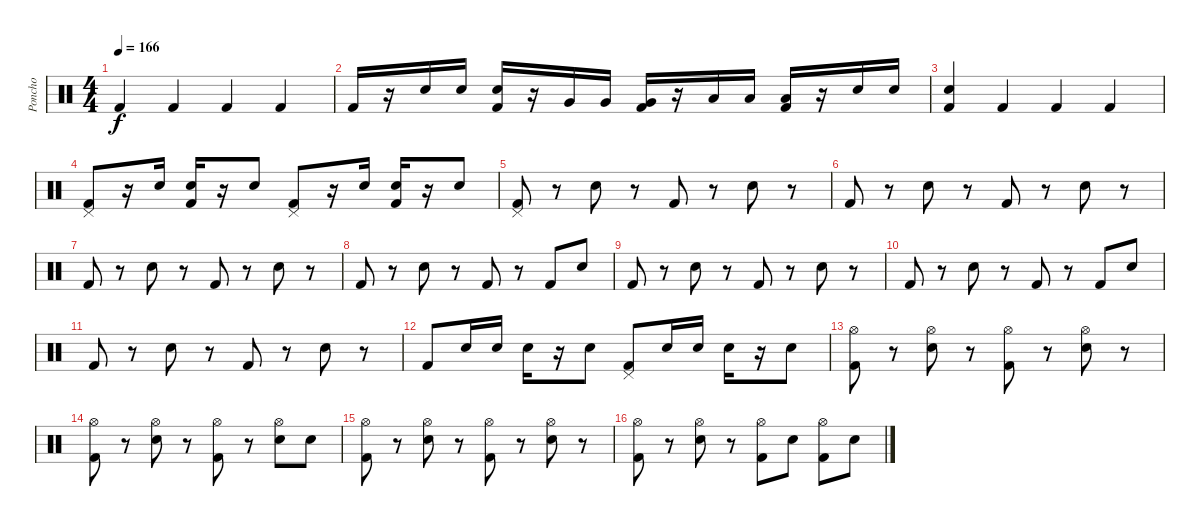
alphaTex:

\track ("Poncho" "Poncho") {instrument percussion}
\staff {score}
\articulation defaults
\ts (4 4)
\tempo 166
\clef neutral
\ks c "Kick (hit) 2".4{dy f} "Kick (hit) 2".4 "Kick (hit) 2".4 "Kick (hit) 2".4
|
"Kick (hit) 2".16 r.16 "Electric Snare (hit)".16 "Electric Snare (hit)".16 ("Electric Snare (hit)" "Kick (hit) 2").16 r.16 "Very Low Tom (hit)".16 "Very Low Tom (hit)".16 ("Very Low Tom (hit)" "Kick (hit) 2").16 r.16 "Low Tom (hit)".16 "Low Tom (hit)".16 ("Low Tom (hit)" "Kick (hit) 2").16 r.16 "Electric Snare (hit)".16 "Electric Snare (hit)".16 |
("Electric Snare (hit)" "Kick (hit) 2").4 "Kick (hit) 2".4 "Kick (hit) 2".4 "Kick (hit) 2".4 |
("Pedal Hi-Hat (hit)" "Kick (hit) 2").8 r.16 "Electric Snare (hit)".16 ("Electric Snare (hit)" "Kick (hit) 2").16 r.16 "Electric Snare (hit)".8 ("Pedal Hi-Hat (hit)" "Kick (hit) 2").8 r.16 "Electric Snare (hit)".16 ("Electric Snare (hit)" "Kick (hit) 2").16 r.16 "Electric Snare (hit)".8 |
("Pedal Hi-Hat (hit)" "Kick (hit) 2").8 r.8 "Electric Snare (hit)".8 r.8 "Kick (hit) 2".8 r.8 "Electric Snare (hit)".8 r.8 |
"Kick (hit) 2".8 r.8 "Electric Snare (hit)".8 r.8 "Kick (hit) 2".8 r.8 "Electric Snare (hit)".8 r.8 |
"Kick (hit) 2".8 r.8 "Electric Snare (hit)".8 r.8 "Kick (hit) 2".8 r.8 "Electric Snare (hit)".8 r.8 |
"Kick (hit) 2".8 r.8 "Electric Snare (hit)".8 r.8 "Kick (hit) 2".8 r.8 "Kick (hit) 2".8 "Electric Snare (hit)".8 |
"Kick (hit) 2".8 r.8 "Electric Snare (hit)".8 r.8 "Kick (hit) 2".8 r.8 "Electric Snare (hit)".8 r.8 |
"Kick (hit) 2".8 r.8 "Electric Snare (hit)".8 r.8 "Kick (hit) 2".8 r.8 "Kick (hit) 2".8 "Electric Snare (hit)".8 |
"Kick (hit) 2".8 r.8 "Electric Snare (hit)".8 r.8 "Kick (hit) 2".8 r.8 "Electric Snare (hit)".8 r.8 |
"Kick (hit) 2".8 "Electric Snare (hit)".16 "Electric Snare (hit)".16 "Electric Snare (hit)".16 r.16 "Electric Snare (hit)".8 ("Pedal Hi-Hat (hit)" "Kick (hit) 2").8 "Electric Snare (hit)".16 "Electric Snare (hit)".16 "Electric Snare (hit)".16 r.16 "Electric Snare (hit)".8 |
("Hi-Hat (open)" "Kick (hit) 2").8 r.8 ("Hi-Hat (open)" "Electric Snare (hit)").8 r.8 ("Hi-Hat (open)" "Kick (hit) 2").8 r.8 ("Hi-Hat (open)" "Electric Snare (hit)").8 r.8 |
("Hi-Hat (open)" "Kick (hit) 2").8 r.8 ("Hi-Hat (open)" "Electric Snare (hit)").8 r.8 ("Hi-Hat (open)" "Kick (hit) 2").8 r.8 ("Hi-Hat (open)" "Electric Snare (hit)").8 "Snare (hit)".8 |
("Hi-Hat (open)" "Kick (hit) 2").8 r.8 ("Hi-Hat (open)" "Electric Snare (hit)").8 r.8 ("Hi-Hat (open)" "Kick (hit) 2").8 r.8 ("Hi-Hat (open)" "Electric Snare (hit)").8 r.8 |
("Hi-Hat (open)" "Kick (hit) 2").8 r.8 ("Hi-Hat (open)" "Electric Snare (hit)").8 r.8 ("Hi-Hat (open)" "Kick (hit) 2").8 "Electric Snare (hit)".8 ("Hi-Hat (open)" "Kick (hit) 2").8 "Electric Snare (hit)".8
